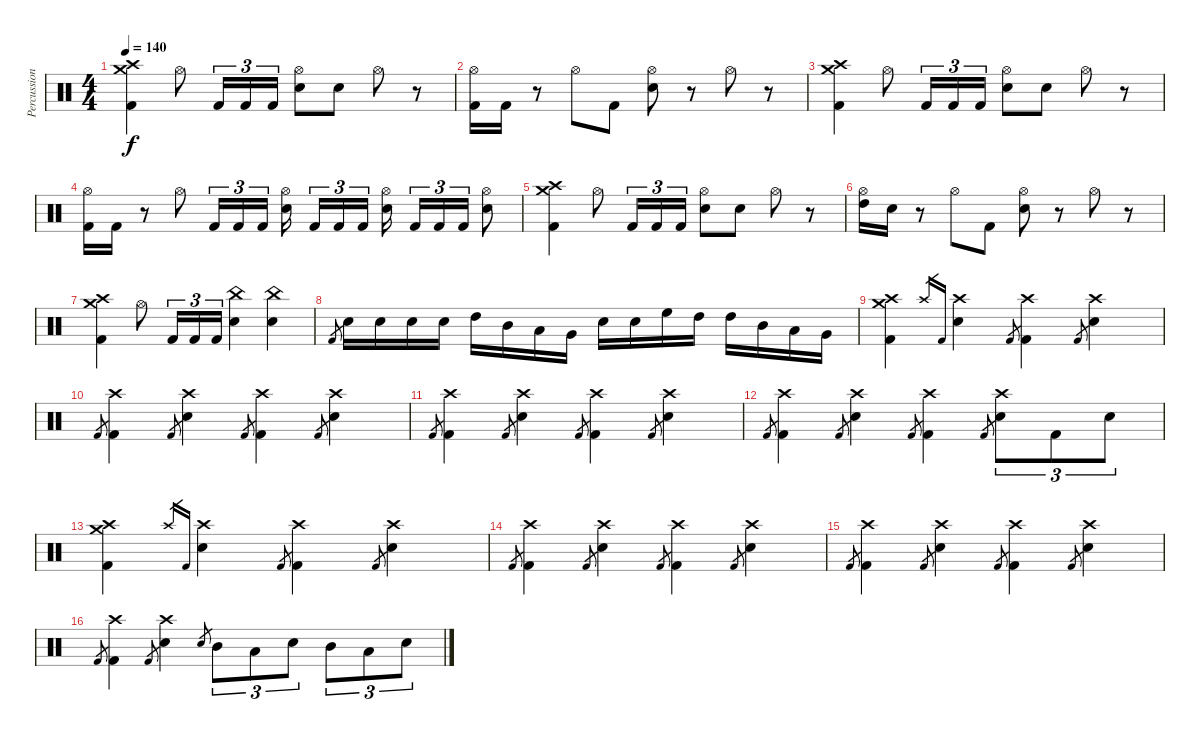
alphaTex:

\track ("Percussion" "Percussion") {instrument percussion}
\staff {score}
\articulation defaults
\ts (4 4)
\tempo 140
\clef neutral
\ks c
("Crash medium (hit)" "Crash high (hit)" "Kick (hit) 2").4{dy f} "Hi-Hat (open)".8 "Kick (hit) 2".16{tu (3 2)} "Kick (hit) 2".16{tu (3 2)} "Kick (hit) 2".16{tu (3 2)} ("Hi-Hat (open)" "Electric Snare (hit)").8 "Electric Snare (hit)".8 "Hi-Hat (open)".8 r.8 |
("Hi-Hat (open)" "Kick (hit) 2").16 "Kick (hit) 2".16 r.8 "Hi-Hat (open)".8 "Kick (hit) 2".8 ("Hi-Hat (open)" "Electric Snare (hit)").8 r.8 "Hi-Hat (open)".8 r.8 |
("Crash medium (hit)" "Crash high (hit)" "Kick (hit) 2").4 "Hi-Hat (open)".8 "Kick (hit) 2".16{tu (3 2)} "Kick (hit) 2".16{tu (3 2)} "Kick (hit) 2".16{tu (3 2)} ("Hi-Hat (open)" "Electric Snare (hit)").8 "Electric Snare (hit)".8 "Hi-Hat (open)".8 r.8 |
("Hi-Hat (open)" "Kick (hit) 2").16 "Kick (hit) 2".16 r.8 "Hi-Hat (open)".8 "Kick (hit) 2".16{tu (3 2)} "Kick (hit) 2".16{tu (3 2)} "Kick (hit) 2".16{tu (3 2)} ("Hi-Hat (open)" "Electric Snare (hit)").16{beam splitsecondary} "Kick (hit) 2".16{tu (3 2)} "Kick (hit) 2".16{tu (3 2)} "Kick (hit) 2".16{tu (3 2) beam splitsecondary} ("Hi-Hat (open)" "Electric Snare (hit)").16 "Kick (hit) 2".16{tu (3 2)} "Kick (hit) 2".16{tu (3 2)} "Kick (hit) 2".16{tu (3 2)} ("Hi-Hat (open)" "Electric Snare (hit)").8 |
("Crash medium (hit)" "Crash high (hit)" "Kick (hit) 2").4 "Hi-Hat (open)".8 "Kick (hit) 2".16{tu (3 2)} "Kick (hit) 2".16{tu (3 2)} "Kick (hit) 2".16{tu (3 2)} ("Hi-Hat (open)" "Electric Snare (hit)").8 "Electric Snare (hit)".8 "Hi-Hat (open)".8 r.8 |
("Hi-Hat (open)" "High Tom (hit)").16 "Electric Snare (hit)".16 r.8 "Hi-Hat (open)".8 "Kick (hit) 2".8 ("Hi-Hat (open)" "Electric Snare (hit)").8 r.8 "Hi-Hat (open)".8 r.8 |
("Crash medium (hit)" "Crash high (hit)" "Kick (hit) 2").4 "Hi-Hat (open)".8 "Kick (hit) 2".16{tu (3 2)} "Kick (hit) 2".16{tu (3 2)} "Kick (hit) 2".16{tu (3 2)} ("China (hit)" "Electric Snare (hit)").4 ("China (hit)" "Electric Snare (hit)").4 |
"Kick (hit) 2".8{gr} "Electric Snare (hit)".16 "Electric Snare (hit)".16 "Electric Snare (hit)".16 "Electric Snare (hit)".16 "High Tom (hit)".16 "Mid Tom (hit)".16 "Low Tom (hit)".16 "Very Low Tom (hit)".16 "Electric Snare (hit)".16 "Electric Snare (hit)".16 "High Floor Tom (hit)".16 "High Tom (hit)".16 "High Tom (hit)".16 "Mid Tom (hit)".16 "Low Tom (hit)".16 "Very Low Tom (hit)".16 |
("Crash medium (hit)" "Crash high (hit)" "Kick (hit) 2").4 "Crash high (hit)".16{gr} "Kick (hit) 2".16{gr} ("Crash high (hit)" "Electric Snare (hit)").4 "Kick (hit) 2".8{gr} ("Crash high (hit)" "Kick (hit) 2").4 "Kick (hit) 2".8{gr} ("Crash high (hit)" "Electric Snare (hit)").4 |
"Kick (hit) 2".8{gr} ("Crash high (hit)" "Kick (hit) 2").4 "Kick (hit) 2".8{gr} ("Crash high (hit)" "Electric Snare (hit)").4 "Kick (hit) 2".8{gr} ("Crash high (hit)" "Kick (hit) 2").4 "Kick (hit) 2".8{gr} ("Crash high (hit)" "Electric Snare (hit)").4 |
"Kick (hit) 2".8{gr} ("Crash high (hit)" "Kick (hit) 2").4 "Kick (hit) 2".8{gr} ("Crash high (hit)" "Electric Snare (hit)").4 "Kick (hit) 2".8{gr} ("Crash high (hit)" "Kick (hit) 2").4 "Kick (hit) 2".8{gr} ("Crash high (hit)" "Electric Snare (hit)").4 |
"Kick (hit) 2".8{gr} ("Crash high (hit)" "Kick (hit) 2").4 "Kick (hit) 2".8{gr} ("Crash high (hit)" "Electric Snare (hit)").4 "Kick (hit) 2".8{gr} ("Crash high (hit)" "Kick (hit) 2").4 "Kick (hit) 2".8{gr} ("Crash high (hit)" "Electric Snare (hit)").8{tu (3 2)} "Kick (hit) 2".8{tu (3 2)} "Electric Snare (hit)".8{tu (3 2)} |
("Crash medium (hit)" "Crash high (hit)" "Kick (hit) 2").4 "Crash high (hit)".16{gr} "Kick (hit) 2".16{gr} ("Crash high (hit)" "Electric Snare (hit)").4 "Kick (hit) 2".8{gr} ("Crash high (hit)" "Kick (hit) 2").4 "Kick (hit) 2".8{gr} ("Crash high (hit)" "Electric Snare (hit)").4 |
"Kick (hit) 2".8{gr} ("Crash high (hit)" "Kick (hit) 2").4 "Kick (hit) 2".8{gr} ("Crash high (hit)" "Electric Snare (hit)").4 "Kick (hit) 2".8{gr} ("Crash high (hit)" "Kick (hit) 2").4 "Kick (hit) 2".8{gr} ("Crash high (hit)" "Electric Snare (hit)").4 |
"Kick (hit) 2".8{gr} ("Crash high (hit)" "Kick (hit) 2").4 "Kick (hit) 2".8{gr} ("Crash high (hit)" "Electric Snare (hit)").4 "Kick (hit) 2".8{gr} ("Crash high (hit)" "Kick (hit) 2").4 "Kick (hit) 2".8{gr} ("Crash high (hit)" "Electric Snare (hit)").4 |
"Kick (hit) 2".8{gr} ("Crash high (hit)" "Kick (hit) 2").4 "Kick (hit) 2".8{gr} ("Crash high (hit)" "Electric Snare (hit)").4 "Electric Snare (hit)".8{gr} "Mid Tom (hit)".8{tu (3 2)} "Low Tom (hit)".8{tu (3 2)} "Snare (hit) 2".8{tu (3 2)} "Mid Tom (hit)".8{tu (3 2)} "Low Tom (hit)".8{tu (3 2)} "Snare (hit) 2".8{tu (3 2)}
